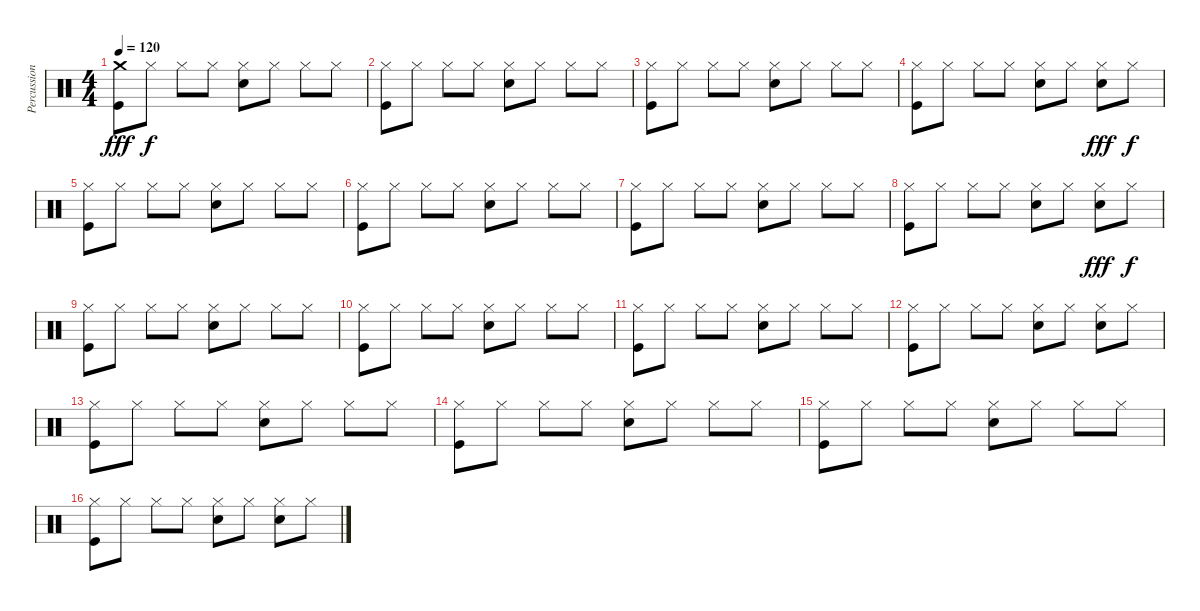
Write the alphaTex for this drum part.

\track ("Percussions" "Percussion") {instrument percussion}
\staff {score}
\articulation defaults
\ts (4 4)
\tempo 120
\clef neutral
\ks c
("Crash medium (hit)" "Kick (hit)").8{dy fff} "Hi-Hat (closed)".8{dy f} "Hi-Hat (closed)".8 "Hi-Hat (closed)".8 ("Hi-Hat (closed)" "Snare (hit) 2").8 "Hi-Hat (closed)".8 "Hi-Hat (closed)".8 "Hi-Hat (closed)".8 |
("Hi-Hat (closed)" "Kick (hit)").8 "Hi-Hat (closed)".8 "Hi-Hat (closed)".8 "Hi-Hat (closed)".8 ("Hi-Hat (closed)" "Snare (hit) 2").8 "Hi-Hat (closed)".8 "Hi-Hat (closed)".8 "Hi-Hat (closed)".8 |
("Hi-Hat (closed)" "Kick (hit)").8 "Hi-Hat (closed)".8 "Hi-Hat (closed)".8 "Hi-Hat (closed)".8 ("Hi-Hat (closed)" "Snare (hit) 2").8 "Hi-Hat (closed)".8 "Hi-Hat (closed)".8 "Hi-Hat (closed)".8 |
("Hi-Hat (closed)" "Kick (hit)").8 "Hi-Hat (closed)".8 "Hi-Hat (closed)".8 "Hi-Hat (closed)".8 ("Hi-Hat (closed)" "Snare (hit) 2").8 "Hi-Hat (closed)".8 ("Hi-Hat (closed)" "Snare (hit) 2").8{dy fff} "Hi-Hat (closed)".8{dy f} |
("Hi-Hat (closed)" "Kick (hit)").8 "Hi-Hat (closed)".8 "Hi-Hat (closed)".8 "Hi-Hat (closed)".8 ("Hi-Hat (closed)" "Snare (hit) 2").8 "Hi-Hat (closed)".8 "Hi-Hat (closed)".8 "Hi-Hat (closed)".8 |
("Hi-Hat (closed)" "Kick (hit)").8 "Hi-Hat (closed)".8 "Hi-Hat (closed)".8 "Hi-Hat (closed)".8 ("Hi-Hat (closed)" "Snare (hit) 2").8 "Hi-Hat (closed)".8 "Hi-Hat (closed)".8 "Hi-Hat (closed)".8 |
("Hi-Hat (closed)" "Kick (hit)").8 "Hi-Hat (closed)".8 "Hi-Hat (closed)".8 "Hi-Hat (closed)".8 ("Hi-Hat (closed)" "Snare (hit) 2").8 "Hi-Hat (closed)".8 "Hi-Hat (closed)".8 "Hi-Hat (closed)".8 |
("Hi-Hat (closed)" "Kick (hit)").8 "Hi-Hat (closed)".8 "Hi-Hat (closed)".8 "Hi-Hat (closed)".8 ("Hi-Hat (closed)" "Snare (hit) 2").8 "Hi-Hat (closed)".8 ("Hi-Hat (closed)" "Snare (hit) 2").8{dy fff} "Hi-Hat (closed)".8{dy f} |
("Hi-Hat (closed)" "Kick (hit)").8 "Hi-Hat (closed)".8 "Hi-Hat (closed)".8 "Hi-Hat (closed)".8 ("Hi-Hat (closed)" "Snare (hit) 2").8 "Hi-Hat (closed)".8 "Hi-Hat (closed)".8 "Hi-Hat (closed)".8 |
("Hi-Hat (closed)" "Kick (hit)").8 "Hi-Hat (closed)".8 "Hi-Hat (closed)".8 "Hi-Hat (closed)".8 ("Hi-Hat (closed)" "Snare (hit) 2").8 "Hi-Hat (closed)".8 "Hi-Hat (closed)".8 "Hi-Hat (closed)".8 |
("Hi-Hat (closed)" "Kick (hit)").8 "Hi-Hat (closed)".8 "Hi-Hat (closed)".8 "Hi-Hat (closed)".8 ("Hi-Hat (closed)" "Snare (hit) 2").8 "Hi-Hat (closed)".8 "Hi-Hat (closed)".8 "Hi-Hat (closed)".8 |
("Hi-Hat (closed)" "Kick (hit)").8 "Hi-Hat (closed)".8 "Hi-Hat (closed)".8 "Hi-Hat (closed)".8 ("Hi-Hat (closed)" "Snare (hit) 2").8 "Hi-Hat (closed)".8 ("Hi-Hat (closed)" "Snare (hit) 2").8 "Hi-Hat (closed)".8 |
("Hi-Hat (closed)" "Kick (hit)").8 "Hi-Hat (closed)".8 "Hi-Hat (closed)".8 "Hi-Hat (closed)".8 ("Hi-Hat (closed)" "Snare (hit) 2").8 "Hi-Hat (closed)".8 "Hi-Hat (closed)".8 "Hi-Hat (closed)".8 |
("Hi-Hat (closed)" "Kick (hit)").8 "Hi-Hat (closed)".8 "Hi-Hat (closed)".8 "Hi-Hat (closed)".8 ("Hi-Hat (closed)" "Snare (hit) 2").8 "Hi-Hat (closed)".8 "Hi-Hat (closed)".8 "Hi-Hat (closed)".8 |
("Hi-Hat (closed)" "Kick (hit)").8 "Hi-Hat (closed)".8 "Hi-Hat (closed)".8 "Hi-Hat (closed)".8 ("Hi-Hat (closed)" "Snare (hit) 2").8 "Hi-Hat (closed)".8 "Hi-Hat (closed)".8 "Hi-Hat (closed)".8 |
("Hi-Hat (closed)" "Kick (hit)").8 "Hi-Hat (closed)".8 "Hi-Hat (closed)".8 "Hi-Hat (closed)".8 ("Hi-Hat (closed)" "Snare (hit) 2").8 "Hi-Hat (closed)".8 ("Hi-Hat (closed)" "Snare (hit) 2").8 "Hi-Hat (closed)".8
